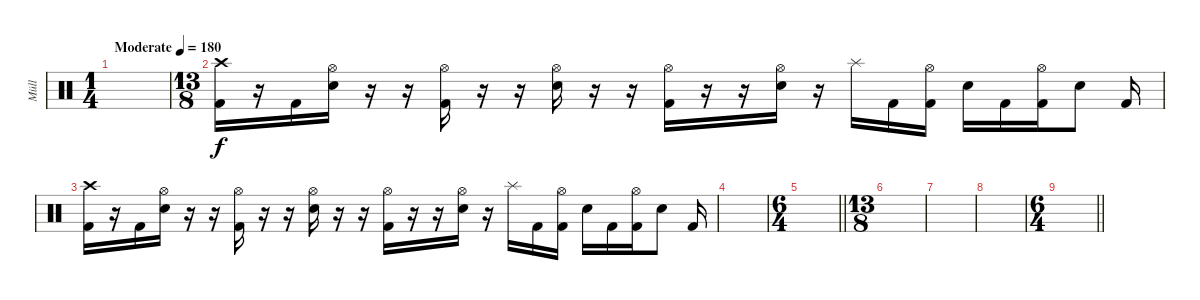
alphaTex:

\track ("Müll" "Müll") {mute instrument percussion}
\staff
\articulation defaults
\ts (1 4)
\tempo (180 "Moderate")
\clef neutral
\ks c
|
\ts (13 8)
("Crash high (hit)" "Kick (hit) 2").16 r.16 "Kick (hit) 2".16 ("Hi-Hat (open)" "Electric Snare (hit)").16 r.16 r.16 ("Hi-Hat (open)" "Kick (hit) 2").16 r.16 r.16 ("Hi-Hat (open)" "Electric Snare (hit)").16 r.16 r.16 ("Hi-Hat (open)" "Kick (hit) 2").16 r.16 r.16 ("Hi-Hat (open)" "Electric Snare (hit)").16 r.16 "Splash (hit)".16 "Kick (hit) 2".16 ("Hi-Hat (open)" "Kick (hit) 2").16 "Electric Snare (hit)".16 "Kick (hit) 2".16 ("Hi-Hat (open)" "Kick (hit) 2").16 "Electric Snare (hit)".8 "Kick (hit) 2".16 |
("Crash high (hit)" "Kick (hit) 2").16 r.16 "Kick (hit) 2".16 ("Hi-Hat (open)" "Electric Snare (hit)").16 r.16 r.16 ("Hi-Hat (open)" "Kick (hit) 2").16 r.16 r.16 ("Hi-Hat (open)" "Electric Snare (hit)").16 r.16 r.16 ("Hi-Hat (open)" "Kick (hit) 2").16 r.16 r.16 ("Hi-Hat (open)" "Electric Snare (hit)").16 r.16 "Splash (hit)".16 "Kick (hit) 2".16 ("Hi-Hat (open)" "Kick (hit) 2").16 "Electric Snare (hit)".16 "Kick (hit) 2".16 ("Hi-Hat (open)" "Kick (hit) 2").16 "Electric Snare (hit)".8 "Kick (hit) 2".16 |
|
\ts (6 4)
\barLineRight lightlight
|
\ts (13 8)
|
|
|
\ts (6 4)
\barLineRight lightlight
